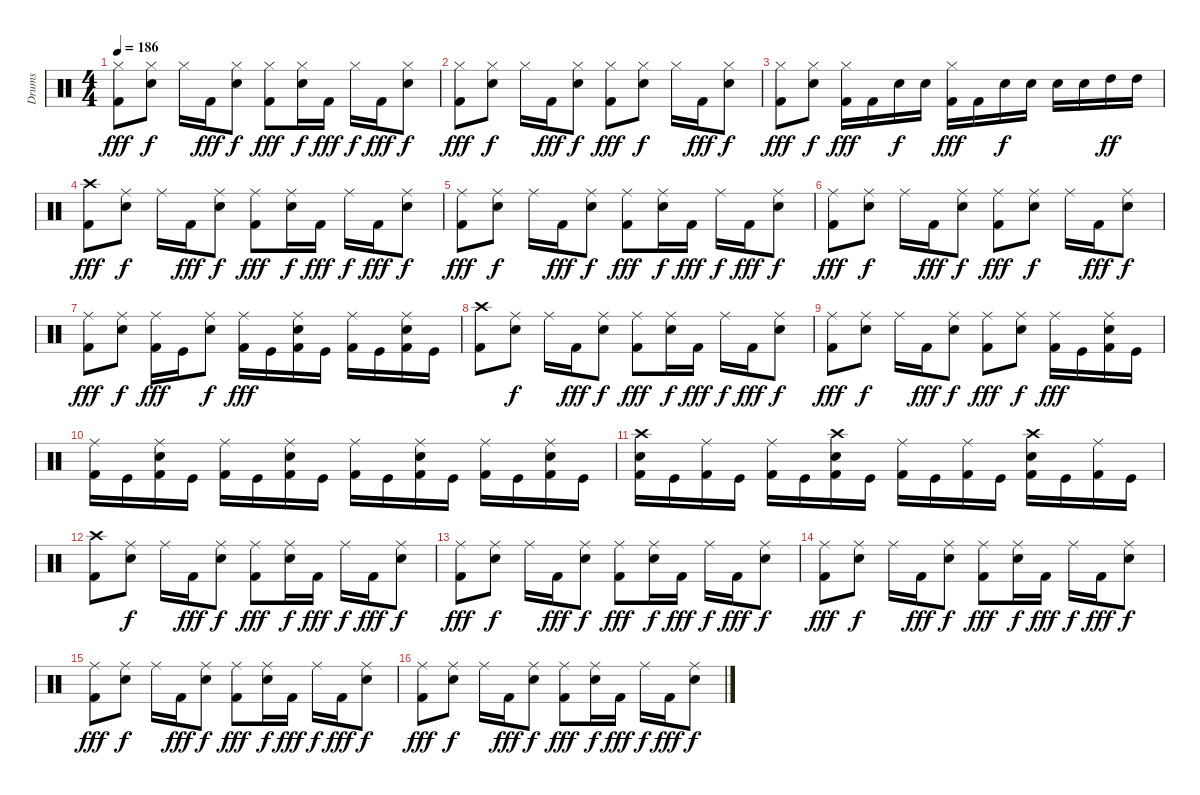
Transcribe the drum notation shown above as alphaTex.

\track ("Drums" "Drums") {instrument percussion}
\staff {score}
\articulation defaults
\ts (4 4)
\tempo 186
\clef neutral
\ks c
("Hi-Hat (closed)" "Kick (hit) 2").8{dy fff} ("Hi-Hat (closed)" "Electric Snare (hit)").8{dy f} "Hi-Hat (closed)".16 "Kick (hit) 2".16{dy fff} ("Hi-Hat (closed)" "Electric Snare (hit)").8{dy f} ("Hi-Hat (closed)" "Kick (hit) 2").8{dy fff} ("Hi-Hat (closed)" "Electric Snare (hit)").16{dy f} "Kick (hit) 2".16{dy fff} "Hi-Hat (closed)".16{dy f} "Kick (hit) 2".16{dy fff} ("Hi-Hat (closed)" "Electric Snare (hit)").8{dy f} |
("Hi-Hat (closed)" "Kick (hit) 2").8{dy fff} ("Hi-Hat (closed)" "Electric Snare (hit)").8{dy f} "Hi-Hat (closed)".16 "Kick (hit) 2".16{dy fff} ("Hi-Hat (closed)" "Electric Snare (hit)").8{dy f} ("Hi-Hat (closed)" "Kick (hit) 2").8{dy fff} ("Hi-Hat (closed)" "Electric Snare (hit)").8{dy f} "Hi-Hat (closed)".16 "Kick (hit) 2".16{dy fff} ("Hi-Hat (closed)" "Electric Snare (hit)").8{dy f} |
("Hi-Hat (closed)" "Kick (hit) 2").8{dy fff} ("Hi-Hat (closed)" "Electric Snare (hit)").8{dy f} ("Hi-Hat (closed)" "Kick (hit) 2").16{dy fff} "Kick (hit) 2".16 "Electric Snare (hit)".16{dy f} "Electric Snare (hit)".16 ("Hi-Hat (closed)" "Kick (hit) 2").16{dy fff} "Kick (hit) 2".16 "Electric Snare (hit)".16{dy f} "Electric Snare (hit)".16 "Electric Snare (hit)".16 "Electric Snare (hit)".16 "High Tom (hit)".16{dy ff} "High Tom (hit)".16 |
("Crash high (hit)" "Kick (hit) 2").8{dy fff} ("Ride (middle)" "Electric Snare (hit)").8{dy f} "Ride (middle)".16 "Kick (hit) 2".16{dy fff} ("Ride (middle)" "Electric Snare (hit)").8{dy f} ("Ride (middle)" "Kick (hit) 2").8{dy fff} ("Ride (middle)" "Electric Snare (hit)").16{dy f} "Kick (hit) 2".16{dy fff} "Ride (middle)".16{dy f} "Kick (hit) 2".16{dy fff} ("Ride (middle)" "Electric Snare (hit)").8{dy f} |
("Ride (middle)" "Kick (hit) 2").8{dy fff} ("Ride (middle)" "Electric Snare (hit)").8{dy f} "Ride (middle)".16 "Kick (hit) 2".16{dy fff} ("Ride (middle)" "Electric Snare (hit)").8{dy f} ("Ride (middle)" "Kick (hit) 2").8{dy fff} ("Ride (middle)" "Electric Snare (hit)").16{dy f} "Kick (hit) 2".16{dy fff} "Ride (middle)".16{dy f} "Kick (hit) 2".16{dy fff} ("Ride (middle)" "Electric Snare (hit)").8{dy f} |
("Ride (middle)" "Kick (hit) 2").8{dy fff} ("Ride (middle)" "Electric Snare (hit)").8{dy f} "Ride (middle)".16 "Kick (hit) 2".16{dy fff} ("Ride (middle)" "Electric Snare (hit)").8{dy f} ("Ride (middle)" "Kick (hit) 2").8{dy fff} ("Ride (middle)" "Electric Snare (hit)").8{dy f} "Ride (middle)".16 "Kick (hit) 2".16{dy fff} ("Ride (middle)" "Electric Snare (hit)").8{dy f} |
("Ride (middle)" "Kick (hit) 2").8{dy fff} ("Ride (middle)" "Electric Snare (hit)").8{dy f} ("Ride (middle)" "Kick (hit) 2").16{dy fff} "Kick (hit)".16 ("Ride (middle)" "Electric Snare (hit)").8{dy f} ("Ride (middle)" "Kick (hit) 2").16{dy fff} "Kick (hit)".16 ("Ride (middle)" "Electric Snare (hit)" "Kick (hit) 2").16 "Kick (hit)".16 ("Ride (middle)" "Kick (hit) 2").16 "Kick (hit)".16 ("Ride (middle)" "Electric Snare (hit)" "Kick (hit) 2").16 "Kick (hit)".16 |
("Crash high (hit)" "Kick (hit) 2").8 ("Ride (middle)" "Electric Snare (hit)").8{dy f} "Ride (middle)".16 "Kick (hit) 2".16{dy fff} ("Ride (middle)" "Electric Snare (hit)").8{dy f} ("Ride (middle)" "Kick (hit) 2").8{dy fff} ("Ride (middle)" "Electric Snare (hit)").16{dy f} "Kick (hit) 2".16{dy fff} "Ride (middle)".16{dy f} "Kick (hit) 2".16{dy fff} ("Ride (middle)" "Electric Snare (hit)").8{dy f} |
("Ride (middle)" "Kick (hit) 2").8{dy fff} ("Ride (middle)" "Electric Snare (hit)").8{dy f} "Ride (middle)".16 "Kick (hit) 2".16{dy fff} ("Ride (middle)" "Electric Snare (hit)").8{dy f} ("Ride (middle)" "Kick (hit) 2").8{dy fff} ("Ride (middle)" "Electric Snare (hit)").8{dy f} ("Ride (middle)" "Kick (hit) 2").16{dy fff} "Kick (hit)".16 ("Ride (middle)" "Electric Snare (hit)" "Kick (hit) 2").16 "Kick (hit)".16 |
("Ride (middle)" "Kick (hit) 2").16 "Kick (hit)".16 ("Ride (middle)" "Electric Snare (hit)" "Kick (hit) 2").16 "Kick (hit)".16 ("Ride (middle)" "Kick (hit) 2").16 "Kick (hit)".16 ("Ride (middle)" "Electric Snare (hit)" "Kick (hit) 2").16 "Kick (hit)".16 ("Ride (middle)" "Kick (hit) 2").16 "Kick (hit)".16 ("Ride (middle)" "Electric Snare (hit)" "Kick (hit) 2").16 "Kick (hit)".16 ("Ride (middle)" "Kick (hit) 2").16 "Kick (hit)".16 ("Ride (middle)" "Electric Snare (hit)" "Kick (hit) 2").16 "Kick (hit)".16 |
("Crash high (hit)" "Electric Snare (hit)" "Kick (hit) 2").16 "Kick (hit)".16 ("Ride (middle)" "Kick (hit) 2").16 "Kick (hit)".16 ("Ride (middle)" "Kick (hit) 2").16 "Kick (hit)".16 ("Crash high (hit)" "Electric Snare (hit)" "Kick (hit) 2").16 "Kick (hit)".16 ("Ride (middle)" "Kick (hit) 2").16 "Kick (hit)".16 ("Ride (middle)" "Kick (hit) 2").16 "Kick (hit)".16 ("Crash high (hit)" "Electric Snare (hit)" "Kick (hit) 2").16 "Kick (hit)".16 ("Ride (middle)" "Kick (hit) 2").16 "Kick (hit)".16 |
("Crash high (hit)" "Kick (hit) 2").8 ("Ride (middle)" "Electric Snare (hit)").8{dy f} "Ride (middle)".16 "Kick (hit) 2".16{dy fff} ("Ride (middle)" "Electric Snare (hit)").8{dy f} ("Ride (middle)" "Kick (hit) 2").8{dy fff} ("Ride (middle)" "Electric Snare (hit)").16{dy f} "Kick (hit) 2".16{dy fff} "Ride (middle)".16{dy f} "Kick (hit) 2".16{dy fff} ("Ride (middle)" "Electric Snare (hit)").8{dy f} |
("Ride (middle)" "Kick (hit) 2").8{dy fff} ("Ride (middle)" "Electric Snare (hit)").8{dy f} "Ride (middle)".16 "Kick (hit) 2".16{dy fff} ("Ride (middle)" "Electric Snare (hit)").8{dy f} ("Ride (middle)" "Kick (hit) 2").8{dy fff} ("Ride (middle)" "Electric Snare (hit)").16{dy f} "Kick (hit) 2".16{dy fff} "Ride (middle)".16{dy f} "Kick (hit) 2".16{dy fff} ("Ride (middle)" "Electric Snare (hit)").8{dy f} |
("Ride (middle)" "Kick (hit) 2").8{dy fff} ("Ride (middle)" "Electric Snare (hit)").8{dy f} "Ride (middle)".16 "Kick (hit) 2".16{dy fff} ("Ride (middle)" "Electric Snare (hit)").8{dy f} ("Ride (middle)" "Kick (hit) 2").8{dy fff} ("Ride (middle)" "Electric Snare (hit)").16{dy f} "Kick (hit) 2".16{dy fff} "Ride (middle)".16{dy f} "Kick (hit) 2".16{dy fff} ("Ride (middle)" "Electric Snare (hit)").8{dy f} |
("Ride (middle)" "Kick (hit) 2").8{dy fff} ("Ride (middle)" "Electric Snare (hit)").8{dy f} "Ride (middle)".16 "Kick (hit) 2".16{dy fff} ("Ride (middle)" "Electric Snare (hit)").8{dy f} ("Ride (middle)" "Kick (hit) 2").8{dy fff} ("Ride (middle)" "Electric Snare (hit)").16{dy f} "Kick (hit) 2".16{dy fff} "Ride (middle)".16{dy f} "Kick (hit) 2".16{dy fff} ("Ride (middle)" "Electric Snare (hit)").8{dy f} |
("Ride (middle)" "Kick (hit) 2").8{dy fff} ("Ride (middle)" "Electric Snare (hit)").8{dy f} "Ride (middle)".16 "Kick (hit) 2".16{dy fff} ("Ride (middle)" "Electric Snare (hit)").8{dy f} ("Ride (middle)" "Kick (hit) 2").8{dy fff} ("Ride (middle)" "Electric Snare (hit)").16{dy f} "Kick (hit) 2".16{dy fff} "Ride (middle)".16{dy f} "Kick (hit) 2".16{dy fff} ("Ride (middle)" "Electric Snare (hit)").8{dy f}
